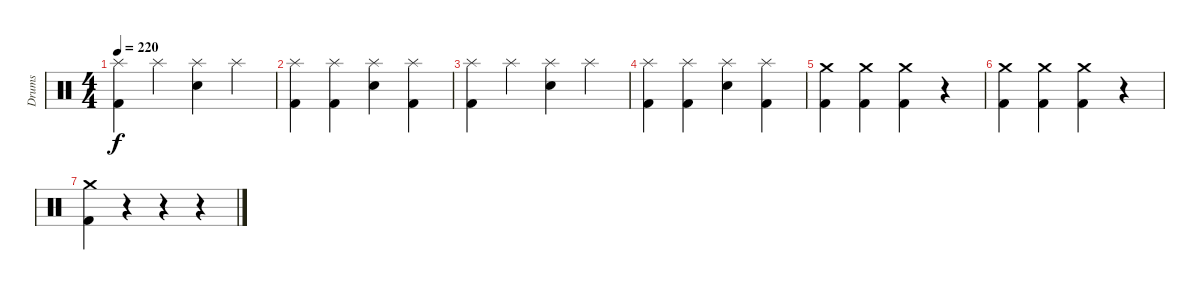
\track ("Drums" "Drums") {instrument percussion}
\staff {score}
\articulation defaults
\ts (4 4)
\tempo 220
\clef neutral
\ks c
("Splash (hit)" "Kick (hit) 2").4{dy f} "Splash (hit)".4 ("Splash (hit)" "Electric Snare (hit)").4 "Splash (hit)".4 |
("Splash (hit)" "Kick (hit) 2").4 ("Splash (hit)" "Kick (hit) 2").4 ("Splash (hit)" "Electric Snare (hit)").4 ("Splash (hit)" "Kick (hit) 2").4 |
("Splash (hit)" "Kick (hit) 2").4 "Splash (hit)".4 ("Splash (hit)" "Electric Snare (hit)").4 "Splash (hit)".4 |
("Splash (hit)" "Kick (hit) 2").4 ("Splash (hit)" "Kick (hit) 2").4 ("Splash (hit)" "Electric Snare (hit)").4 ("Splash (hit)" "Kick (hit) 2").4 |
("Crash medium (hit)" "Kick (hit) 2").4 ("Crash medium (hit)" "Kick (hit) 2").4 ("Crash medium (hit)" "Kick (hit) 2").4 r.4 |
("Crash medium (hit)" "Kick (hit) 2").4 ("Crash medium (hit)" "Kick (hit) 2").4 ("Crash medium (hit)" "Kick (hit) 2").4 r.4 |
("Crash medium (hit)" "Kick (hit) 2").4 r.4 r.4 r.4
